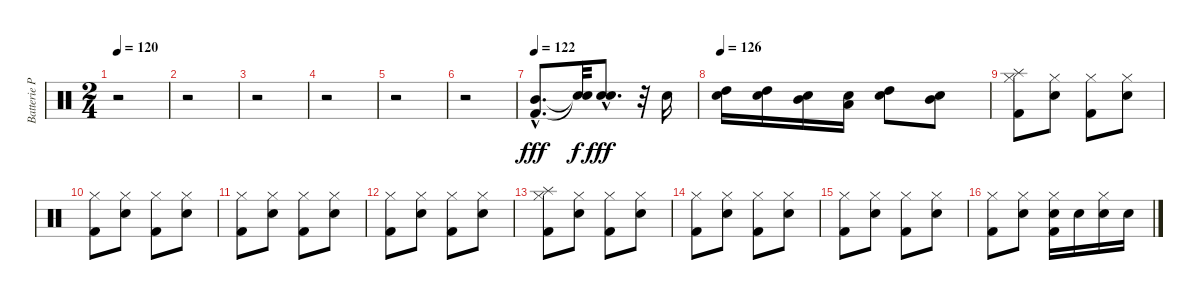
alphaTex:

\track ("Batterie Pako" "Batterie P") {instrument percussion}
\staff {score}
\articulation defaults
\ts (2 4)
\tempo 120
\clef neutral
\ks c
r.2{dy fff} |
r.2 |
r.2 |
r.2 |
r.2 |
r.2 |
\tempo 122
("Kick (hit) 2"{hac} "Mid Tom (hit)"{hac}).8{d} ("Snare (hit)"{t} "Snare (hit)"{t}).32{dy f} ("Electric Snare (hit)" "Snare (hit) 2"{hac}).8{d dy fff} r.32 "Snare (hit) 2".16 |
\tempo 126
("Electric Snare (hit)" "High Tom (hit)").16 ("Electric Snare (hit)" "High Tom (hit)").16 ("Electric Snare (hit)" "Mid Tom (hit)").16 ("Electric Snare (hit)" "Low Tom (hit)").16 ("High Tom (hit)" "Electric Snare (hit)").8 ("Mid Tom (hit)" "Electric Snare (hit)").8 |
("Splash (hit)" "Hi-Hat (closed)" "Kick (hit) 2").8 ("Hi-Hat (closed)" "Electric Snare (hit)").8 ("Hi-Hat (closed)" "Kick (hit) 2").8 ("Hi-Hat (closed)" "Electric Snare (hit)").8 |
("Hi-Hat (closed)" "Kick (hit) 2").8 ("Hi-Hat (closed)" "Electric Snare (hit)").8 ("Hi-Hat (closed)" "Kick (hit) 2").8 ("Hi-Hat (closed)" "Electric Snare (hit)").8 |
("Hi-Hat (closed)" "Kick (hit) 2").8 ("Hi-Hat (closed)" "Electric Snare (hit)").8 ("Hi-Hat (closed)" "Kick (hit) 2").8 ("Hi-Hat (closed)" "Electric Snare (hit)").8 |
("Hi-Hat (closed)" "Kick (hit) 2").8 ("Hi-Hat (closed)" "Electric Snare (hit)").8 ("Hi-Hat (closed)" "Kick (hit) 2").8 ("Hi-Hat (closed)" "Electric Snare (hit)").8 |
("Splash (hit)" "Hi-Hat (closed)" "Kick (hit) 2").8 ("Hi-Hat (closed)" "Electric Snare (hit)").8 ("Hi-Hat (closed)" "Kick (hit) 2").8 ("Hi-Hat (closed)" "Electric Snare (hit)").8 |
("Hi-Hat (closed)" "Kick (hit) 2").8 ("Hi-Hat (closed)" "Electric Snare (hit)").8 ("Hi-Hat (closed)" "Kick (hit) 2").8 ("Hi-Hat (closed)" "Electric Snare (hit)").8 |
("Hi-Hat (closed)" "Kick (hit) 2").8 ("Hi-Hat (closed)" "Electric Snare (hit)").8 ("Hi-Hat (closed)" "Kick (hit) 2").8 ("Hi-Hat (closed)" "Electric Snare (hit)").8 |
("Hi-Hat (closed)" "Kick (hit) 2").8 ("Hi-Hat (closed)" "Electric Snare (hit)").8 ("Electric Snare (hit)" "Hi-Hat (closed)" "Kick (hit) 2").16 "Electric Snare (hit)".16 ("Electric Snare (hit)" "Hi-Hat (closed)").16 "Electric Snare (hit)".16
